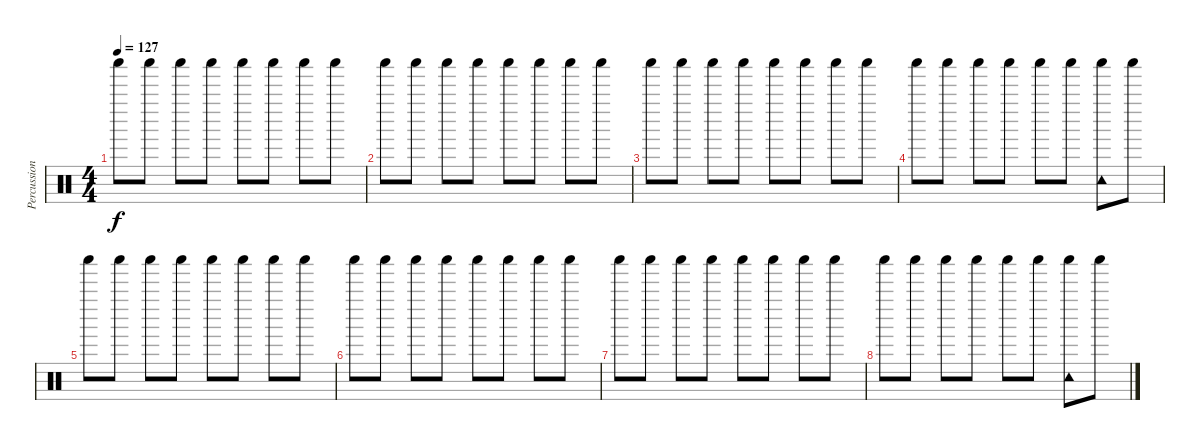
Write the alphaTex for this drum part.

\track ("Percussion II" "Percussion") {instrument percussion}
\staff {score}
\articulation defaults
\ts (4 4)
\tempo 127
\clef neutral
\ks c "Shaker (hit)".8{dy f} "Shaker (hit)".8 "Shaker (hit)".8 "Shaker (hit)".8 "Shaker (hit)".8 "Shaker (hit)".8 "Shaker (hit)".8 "Shaker (hit)".8
|
"Shaker (hit)".8 "Shaker (hit)".8 "Shaker (hit)".8 "Shaker (hit)".8 "Shaker (hit)".8 "Shaker (hit)".8 "Shaker (hit)".8 "Shaker (hit)".8 |
"Shaker (hit)".8 "Shaker (hit)".8 "Shaker (hit)".8 "Shaker (hit)".8 "Shaker (hit)".8 "Shaker (hit)".8 "Shaker (hit)".8 "Shaker (hit)".8 |
"Shaker (hit)".8 "Shaker (hit)".8 "Shaker (hit)".8 "Shaker (hit)".8 "Shaker (hit)".8 "Shaker (hit)".8 ("Shaker (hit)" "Tambourine (hit)").8 "Shaker (hit)".8 |
"Shaker (hit)".8 "Shaker (hit)".8 "Shaker (hit)".8 "Shaker (hit)".8 "Shaker (hit)".8 "Shaker (hit)".8 "Shaker (hit)".8 "Shaker (hit)".8 |
"Shaker (hit)".8 "Shaker (hit)".8 "Shaker (hit)".8 "Shaker (hit)".8 "Shaker (hit)".8 "Shaker (hit)".8 "Shaker (hit)".8 "Shaker (hit)".8 |
"Shaker (hit)".8 "Shaker (hit)".8 "Shaker (hit)".8 "Shaker (hit)".8 "Shaker (hit)".8 "Shaker (hit)".8 "Shaker (hit)".8 "Shaker (hit)".8 |
"Shaker (hit)".8 "Shaker (hit)".8 "Shaker (hit)".8 "Shaker (hit)".8 "Shaker (hit)".8 "Shaker (hit)".8 ("Shaker (hit)" "Tambourine (hit)").8 "Shaker (hit)".8
